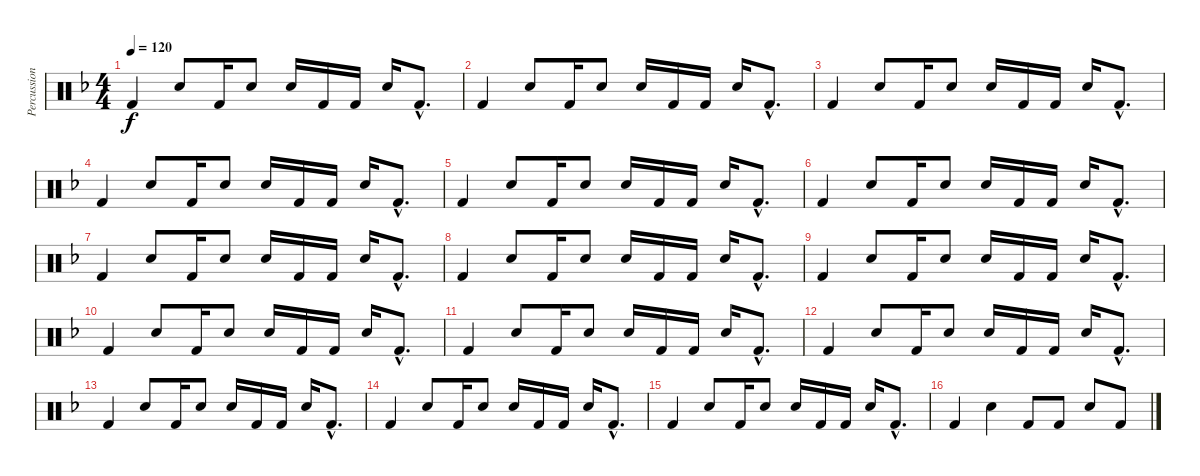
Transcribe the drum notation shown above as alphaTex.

\track ("Percussion" "Percussion") {instrument percussion}
\staff {score}
\articulation defaults
\ts (4 4)
\tempo 120
\clef neutral
\ks dminor "Kick (hit) 2".4{dy f} "Snare (hit) 2".8 "Kick (hit) 2".16 "Snare (hit) 2".8 "Snare (hit) 2".16 "Kick (hit) 2".16 "Kick (hit) 2".16 "Snare (hit) 2".16 "Kick (hit) 2"{hac}.8{d}
|
"Kick (hit) 2".4 "Snare (hit) 2".8 "Kick (hit) 2".16 "Snare (hit) 2".8 "Snare (hit) 2".16 "Kick (hit) 2".16 "Kick (hit) 2".16 "Snare (hit) 2".16 "Kick (hit) 2"{hac}.8{d} |
"Kick (hit) 2".4 "Snare (hit) 2".8 "Kick (hit) 2".16 "Snare (hit) 2".8 "Snare (hit) 2".16 "Kick (hit) 2".16 "Kick (hit) 2".16 "Snare (hit) 2".16 "Kick (hit) 2"{hac}.8{d} |
"Kick (hit) 2".4 "Snare (hit) 2".8 "Kick (hit) 2".16 "Snare (hit) 2".8 "Snare (hit) 2".16 "Kick (hit) 2".16 "Kick (hit) 2".16 "Snare (hit) 2".16 "Kick (hit) 2"{hac}.8{d} |
"Kick (hit) 2".4 "Snare (hit) 2".8 "Kick (hit) 2".16 "Snare (hit) 2".8 "Snare (hit) 2".16 "Kick (hit) 2".16 "Kick (hit) 2".16 "Snare (hit) 2".16 "Kick (hit) 2"{hac}.8{d} |
"Kick (hit) 2".4 "Snare (hit) 2".8 "Kick (hit) 2".16 "Snare (hit) 2".8 "Snare (hit) 2".16 "Kick (hit) 2".16 "Kick (hit) 2".16 "Snare (hit) 2".16 "Kick (hit) 2"{hac}.8{d} |
"Kick (hit) 2".4 "Snare (hit) 2".8 "Kick (hit) 2".16 "Snare (hit) 2".8 "Snare (hit) 2".16 "Kick (hit) 2".16 "Kick (hit) 2".16 "Snare (hit) 2".16 "Kick (hit) 2"{hac}.8{d} |
"Kick (hit) 2".4 "Snare (hit) 2".8 "Kick (hit) 2".16 "Snare (hit) 2".8 "Snare (hit) 2".16 "Kick (hit) 2".16 "Kick (hit) 2".16 "Snare (hit) 2".16 "Kick (hit) 2"{hac}.8{d} |
"Kick (hit) 2".4 "Snare (hit) 2".8 "Kick (hit) 2".16 "Snare (hit) 2".8 "Snare (hit) 2".16 "Kick (hit) 2".16 "Kick (hit) 2".16 "Snare (hit) 2".16 "Kick (hit) 2"{hac}.8{d} |
"Kick (hit) 2".4 "Snare (hit) 2".8 "Kick (hit) 2".16 "Snare (hit) 2".8 "Snare (hit) 2".16 "Kick (hit) 2".16 "Kick (hit) 2".16 "Snare (hit) 2".16 "Kick (hit) 2"{hac}.8{d} |
"Kick (hit) 2".4 "Snare (hit) 2".8 "Kick (hit) 2".16 "Snare (hit) 2".8 "Snare (hit) 2".16 "Kick (hit) 2".16 "Kick (hit) 2".16 "Snare (hit) 2".16 "Kick (hit) 2"{hac}.8{d} |
"Kick (hit) 2".4 "Snare (hit) 2".8 "Kick (hit) 2".16 "Snare (hit) 2".8 "Snare (hit) 2".16 "Kick (hit) 2".16 "Kick (hit) 2".16 "Snare (hit) 2".16 "Kick (hit) 2"{hac}.8{d} |
"Kick (hit) 2".4 "Snare (hit) 2".8 "Kick (hit) 2".16 "Snare (hit) 2".8 "Snare (hit) 2".16 "Kick (hit) 2".16 "Kick (hit) 2".16 "Snare (hit) 2".16 "Kick (hit) 2"{hac}.8{d} |
"Kick (hit) 2".4 "Snare (hit) 2".8 "Kick (hit) 2".16 "Snare (hit) 2".8 "Snare (hit) 2".16 "Kick (hit) 2".16 "Kick (hit) 2".16 "Snare (hit) 2".16 "Kick (hit) 2"{hac}.8{d} |
"Kick (hit) 2".4 "Snare (hit) 2".8 "Kick (hit) 2".16 "Snare (hit) 2".8 "Snare (hit) 2".16 "Kick (hit) 2".16 "Kick (hit) 2".16 "Snare (hit) 2".16 "Kick (hit) 2"{hac}.8{d} |
"Kick (hit) 2".4 "Snare (hit) 2".4 "Kick (hit) 2".8 "Kick (hit) 2".8 "Snare (hit) 2".8 "Kick (hit) 2".8
